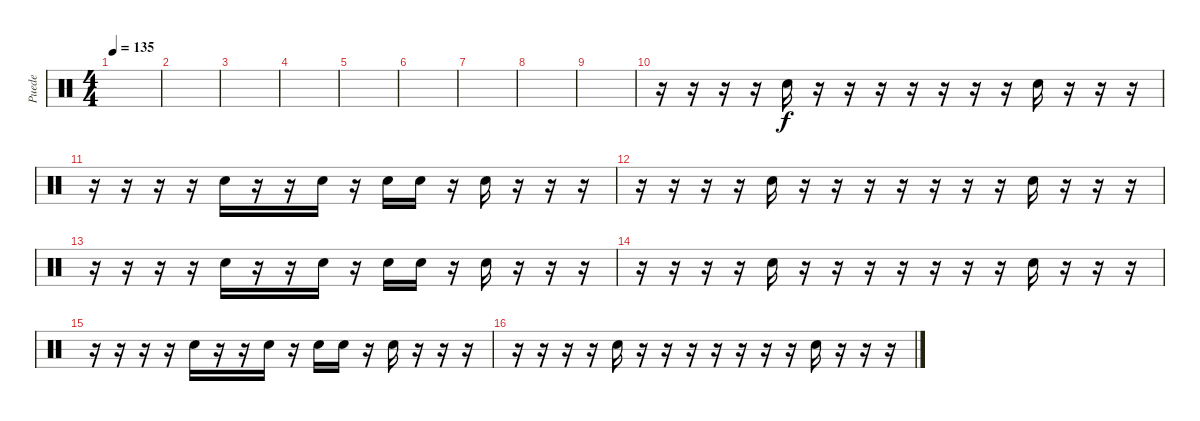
\track ("Puede" "Puede") {instrument percussion}
\staff {score}
\articulation defaults
\ts (4 4)
\tempo 135
\clef neutral
\ks c
|
|
|
|
|
|
|
|
|
r.16 r.16 r.16 r.16 "Hand Clap (hit)".16 r.16 r.16 r.16 r.16 r.16 r.16 r.16 "Hand Clap (hit)".16 r.16 r.16 r.16 |
r.16 r.16 r.16 r.16 "Hand Clap (hit)".16 r.16 r.16 "Hand Clap (hit)".16 r.16 "Hand Clap (hit)".16 "Hand Clap (hit)".16 r.16 "Hand Clap (hit)".16 r.16 r.16 r.16 |
r.16 r.16 r.16 r.16 "Hand Clap (hit)".16 r.16 r.16 r.16 r.16 r.16 r.16 r.16 "Hand Clap (hit)".16 r.16 r.16 r.16 |
r.16 r.16 r.16 r.16 "Hand Clap (hit)".16 r.16 r.16 "Hand Clap (hit)".16 r.16 "Hand Clap (hit)".16 "Hand Clap (hit)".16 r.16 "Hand Clap (hit)".16 r.16 r.16 r.16 |
r.16 r.16 r.16 r.16 "Hand Clap (hit)".16 r.16 r.16 r.16 r.16 r.16 r.16 r.16 "Hand Clap (hit)".16 r.16 r.16 r.16 |
r.16 r.16 r.16 r.16 "Hand Clap (hit)".16 r.16 r.16 "Hand Clap (hit)".16 r.16 "Hand Clap (hit)".16 "Hand Clap (hit)".16 r.16 "Hand Clap (hit)".16 r.16 r.16 r.16 |
r.16 r.16 r.16 r.16 "Hand Clap (hit)".16 r.16 r.16 r.16 r.16 r.16 r.16 r.16 "Hand Clap (hit)".16 r.16 r.16 r.16
